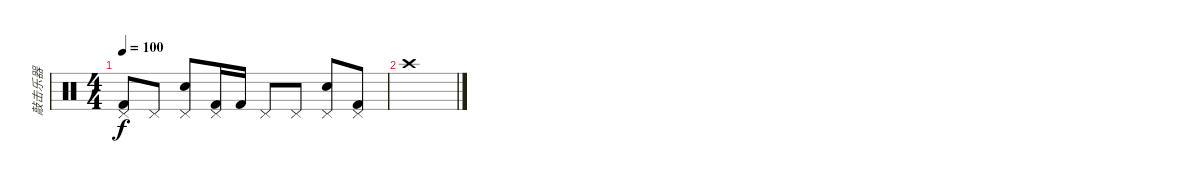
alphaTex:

\track ("敲击乐器" "敲击乐器") {instrument percussion}
\staff {score}
\articulation defaults
\ts (4 4)
\tempo 100
\clef neutral
\ks c
("Pedal Hi-Hat (hit)" "Kick (hit) 2").8{dy f} "Pedal Hi-Hat (hit)".8 ("Pedal Hi-Hat (hit)" "Electric Snare (hit)").8 ("Pedal Hi-Hat (hit)" "Kick (hit) 2").16 "Kick (hit) 2".16 "Pedal Hi-Hat (hit)".8 "Pedal Hi-Hat (hit)".8 ("Pedal Hi-Hat (hit)" "Electric Snare (hit)").8 ("Pedal Hi-Hat (hit)" "Kick (hit) 2").8 |
"Crash high (hit)".1
